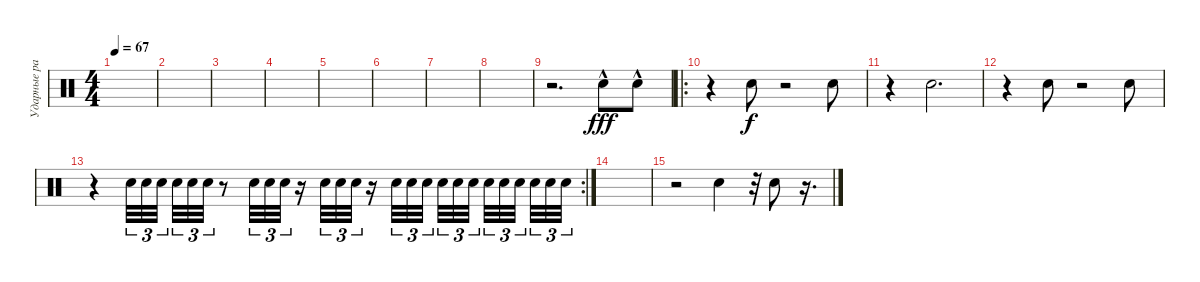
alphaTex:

\track ("Ударные рабочий" "Ударные ра") {instrument percussion}
\staff {score}
\articulation defaults
\ts (4 4)
\tempo 67
\clef neutral
\ks c
|
|
|
|
|
|
|
|
r.2{d} "Snare (hit) 2"{hac}.8{dy fff} "Snare (hit) 2"{hac}.8 |
\ro
r.4 "Snare (hit) 2".8{dy f} r.2 "Snare (hit) 2".8 |
r.4 "Snare (hit) 2".2{d} |
r.4 "Snare (hit) 2".8 r.2 "Snare (hit) 2".8 |
\rc 2
r.4 "Snare (hit) 2".32{tu (3 2)} "Snare (hit) 2".32{tu (3 2)} "Snare (hit) 2".32{tu (3 2) beam splitsecondary} "Snare (hit) 2".32{tu (3 2)} "Snare (hit) 2".32{tu (3 2)} "Snare (hit) 2".32{tu (3 2)} r.8 "Snare (hit) 2".32{tu (3 2)} "Snare (hit) 2".32{tu (3 2)} "Snare (hit) 2".32{tu (3 2)} r.16 "Snare (hit) 2".32{tu (3 2)} "Snare (hit) 2".32{tu (3 2)} "Snare (hit) 2".32{tu (3 2)} r.16 "Snare (hit) 2".32{tu (3 2)} "Snare (hit) 2".32{tu (3 2)} "Snare (hit) 2".32{tu (3 2) beam splitsecondary} "Snare (hit) 2".32{tu (3 2)} "Snare (hit) 2".32{tu (3 2)} "Snare (hit) 2".32{tu (3 2) beam splitsecondary} "Snare (hit) 2".32{tu (3 2)} "Snare (hit) 2".32{tu (3 2)} "Snare (hit) 2".32{tu (3 2) beam splitsecondary} "Snare (hit) 2".32{tu (3 2)} "Snare (hit) 2".32{tu (3 2)} "Snare (hit) 2".32{tu (3 2)} |
|
r.2 "Snare (hit) 2".4 r.32 "Snare (hit) 2".8 r.16{d}
